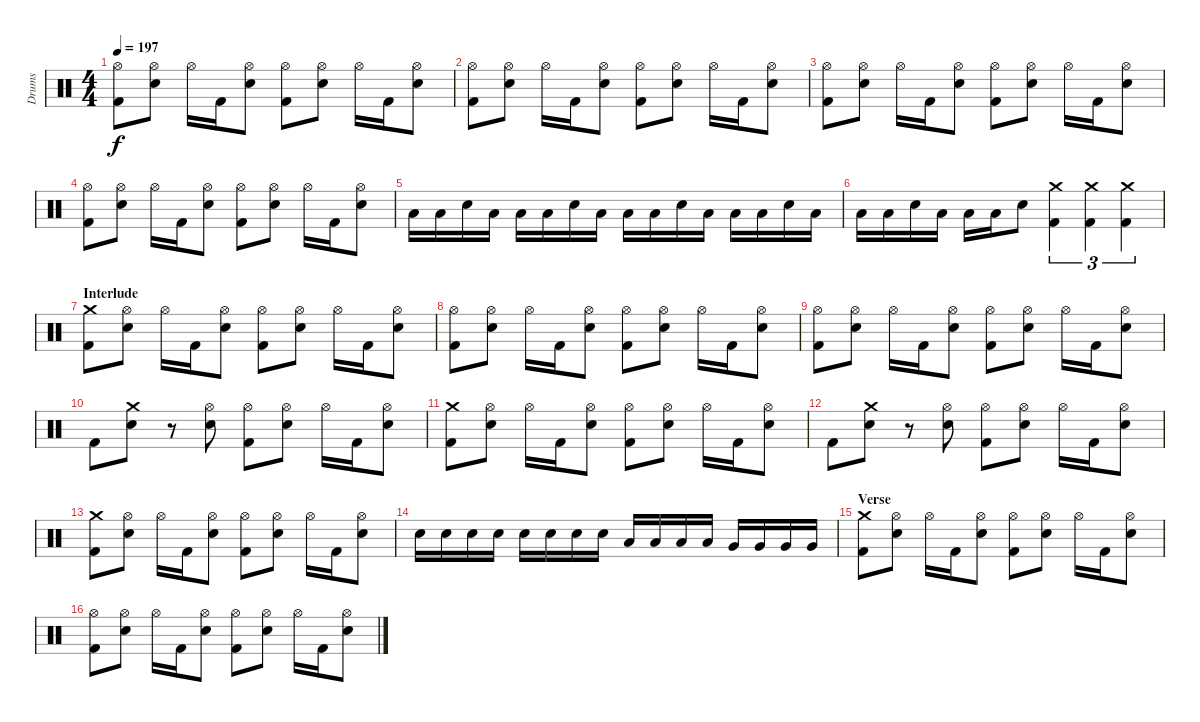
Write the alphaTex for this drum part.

\track ("Drums" "Drums") {instrument percussion}
\staff {score}
\articulation defaults
\ts (4 4)
\tempo 197
\clef neutral
\ks c
("Hi-Hat (open)" "Kick (hit) 2").8{dy f} ("Hi-Hat (open)" "Electric Snare (hit)").8 "Hi-Hat (open)".16 "Kick (hit) 2".16 ("Hi-Hat (open)" "Electric Snare (hit)").8 ("Hi-Hat (open)" "Kick (hit) 2").8 ("Hi-Hat (open)" "Electric Snare (hit)").8 "Hi-Hat (open)".16 "Kick (hit) 2".16 ("Hi-Hat (open)" "Electric Snare (hit)").8 |
("Hi-Hat (open)" "Kick (hit) 2").8 ("Hi-Hat (open)" "Electric Snare (hit)").8 "Hi-Hat (open)".16 "Kick (hit) 2".16 ("Hi-Hat (open)" "Electric Snare (hit)").8 ("Hi-Hat (open)" "Kick (hit) 2").8 ("Hi-Hat (open)" "Electric Snare (hit)").8 "Hi-Hat (open)".16 "Kick (hit) 2".16 ("Hi-Hat (open)" "Electric Snare (hit)").8 |
("Hi-Hat (open)" "Kick (hit) 2").8 ("Hi-Hat (open)" "Electric Snare (hit)").8 "Hi-Hat (open)".16 "Kick (hit) 2".16 ("Hi-Hat (open)" "Electric Snare (hit)").8 ("Hi-Hat (open)" "Kick (hit) 2").8 ("Hi-Hat (open)" "Electric Snare (hit)").8 "Hi-Hat (open)".16 "Kick (hit) 2".16 ("Hi-Hat (open)" "Electric Snare (hit)").8 |
("Hi-Hat (open)" "Kick (hit) 2").8 ("Hi-Hat (open)" "Electric Snare (hit)").8 "Hi-Hat (open)".16 "Kick (hit) 2".16 ("Hi-Hat (open)" "Electric Snare (hit)").8 ("Hi-Hat (open)" "Kick (hit) 2").8 ("Hi-Hat (open)" "Electric Snare (hit)").8 "Hi-Hat (open)".16 "Kick (hit) 2".16 ("Hi-Hat (open)" "Electric Snare (hit)").8 |
"Low Tom (hit)".16 "Low Tom (hit)".16 "Electric Snare (hit)".16 "Low Tom (hit)".16 "Low Tom (hit)".16 "Low Tom (hit)".16 "Electric Snare (hit)".16 "Low Tom (hit)".16 "Low Tom (hit)".16 "Low Tom (hit)".16 "Electric Snare (hit)".16 "Low Tom (hit)".16 "Low Tom (hit)".16 "Low Tom (hit)".16 "Electric Snare (hit)".16 "Low Tom (hit)".16 |
"Low Tom (hit)".16 "Low Tom (hit)".16 "Electric Snare (hit)".16 "Low Tom (hit)".16 "Low Tom (hit)".16 "Low Tom (hit)".16 "Electric Snare (hit)".8 ("Crash medium (hit)" "Kick (hit) 2").4{tu (3 2)} ("Crash medium (hit)" "Kick (hit) 2").4{tu (3 2)} ("Crash medium (hit)" "Kick (hit) 2").4{tu (3 2)} |
\section ("" "Interlude")
("Crash medium (hit)" "Kick (hit) 2").8 ("Hi-Hat (open)" "Electric Snare (hit)").8 "Hi-Hat (open)".16 "Kick (hit) 2".16 ("Hi-Hat (open)" "Electric Snare (hit)").8 ("Hi-Hat (open)" "Kick (hit) 2").8 ("Hi-Hat (open)" "Electric Snare (hit)").8 "Hi-Hat (open)".16 "Kick (hit) 2".16 ("Hi-Hat (open)" "Electric Snare (hit)").8 |
("Hi-Hat (open)" "Kick (hit) 2").8 ("Hi-Hat (open)" "Electric Snare (hit)").8 "Hi-Hat (open)".16 "Kick (hit) 2".16 ("Hi-Hat (open)" "Electric Snare (hit)").8 ("Hi-Hat (open)" "Kick (hit) 2").8 ("Hi-Hat (open)" "Electric Snare (hit)").8 "Hi-Hat (open)".16 "Kick (hit) 2".16 ("Hi-Hat (open)" "Electric Snare (hit)").8 |
("Hi-Hat (open)" "Kick (hit) 2").8 ("Hi-Hat (open)" "Electric Snare (hit)").8 "Hi-Hat (open)".16 "Kick (hit) 2".16 ("Hi-Hat (open)" "Electric Snare (hit)").8 ("Hi-Hat (open)" "Kick (hit) 2").8 ("Hi-Hat (open)" "Electric Snare (hit)").8 "Hi-Hat (open)".16 "Kick (hit) 2".16 ("Hi-Hat (open)" "Electric Snare (hit)").8 |
"Kick (hit) 2".8 ("Crash medium (hit)" "Electric Snare (hit)").8 r.8 ("Hi-Hat (open)" "Electric Snare (hit)").8 ("Hi-Hat (open)" "Kick (hit) 2").8 ("Hi-Hat (open)" "Electric Snare (hit)").8 "Hi-Hat (open)".16 "Kick (hit) 2".16 ("Hi-Hat (open)" "Electric Snare (hit)").8 |
("Crash medium (hit)" "Kick (hit) 2").8 ("Hi-Hat (open)" "Electric Snare (hit)").8 "Hi-Hat (open)".16 "Kick (hit) 2".16 ("Hi-Hat (open)" "Electric Snare (hit)").8 ("Hi-Hat (open)" "Kick (hit) 2").8 ("Hi-Hat (open)" "Electric Snare (hit)").8 "Hi-Hat (open)".16 "Kick (hit) 2".16 ("Hi-Hat (open)" "Electric Snare (hit)").8 |
"Kick (hit) 2".8 ("Crash medium (hit)" "Electric Snare (hit)").8 r.8 ("Hi-Hat (open)" "Electric Snare (hit)").8 ("Hi-Hat (open)" "Kick (hit) 2").8 ("Hi-Hat (open)" "Electric Snare (hit)").8 "Hi-Hat (open)".16 "Kick (hit) 2".16 ("Hi-Hat (open)" "Electric Snare (hit)").8 |
("Crash medium (hit)" "Kick (hit) 2").8 ("Hi-Hat (open)" "Electric Snare (hit)").8 "Hi-Hat (open)".16 "Kick (hit) 2".16 ("Hi-Hat (open)" "Electric Snare (hit)").8 ("Hi-Hat (open)" "Kick (hit) 2").8 ("Hi-Hat (open)" "Electric Snare (hit)").8 "Hi-Hat (open)".16 "Kick (hit) 2".16 ("Hi-Hat (open)" "Electric Snare (hit)").8 |
"Electric Snare (hit)".16 "Electric Snare (hit)".16 "Electric Snare (hit)".16 "Electric Snare (hit)".16 "Electric Snare (hit)".16 "Electric Snare (hit)".16 "Electric Snare (hit)".16 "Electric Snare (hit)".16 "Low Tom (hit)".16 "Low Tom (hit)".16 "Low Tom (hit)".16 "Low Tom (hit)".16 "Very Low Tom (hit)".16 "Very Low Tom (hit)".16 "Very Low Tom (hit)".16 "Very Low Tom (hit)".16 |
\section ("" "Verse")
("Crash medium (hit)" "Kick (hit) 2").8 ("Hi-Hat (open)" "Electric Snare (hit)").8 "Hi-Hat (open)".16 "Kick (hit) 2".16 ("Hi-Hat (open)" "Electric Snare (hit)").8 ("Hi-Hat (open)" "Kick (hit) 2").8 ("Hi-Hat (open)" "Electric Snare (hit)").8 "Hi-Hat (open)".16 "Kick (hit) 2".16 ("Hi-Hat (open)" "Electric Snare (hit)").8 |
("Hi-Hat (open)" "Kick (hit) 2").8 ("Hi-Hat (open)" "Electric Snare (hit)").8 "Hi-Hat (open)".16 "Kick (hit) 2".16 ("Hi-Hat (open)" "Electric Snare (hit)").8 ("Hi-Hat (open)" "Kick (hit) 2").8 ("Hi-Hat (open)" "Electric Snare (hit)").8 "Hi-Hat (open)".16 "Kick (hit) 2".16 ("Hi-Hat (open)" "Electric Snare (hit)").8
